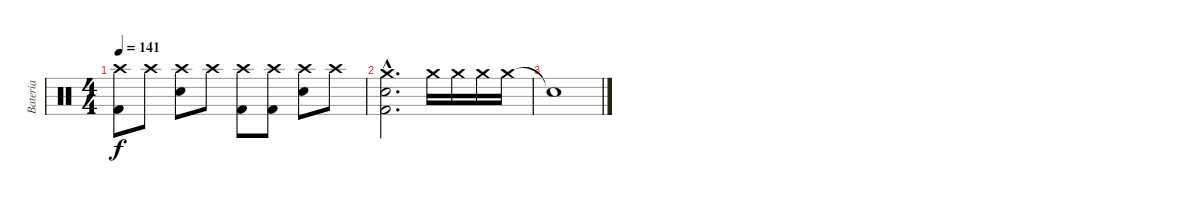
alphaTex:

\track ("Bateria" "Bateria") {instrument percussion}
\staff {score}
\articulation defaults
\ts (4 4)
\tempo 141
\clef neutral
\ks c
("Crash high (hit)" "Kick (hit) 2").8{dy f} "Crash high (hit)".8 ("Crash high (hit)" "Electric Snare (hit)").8 "Crash high (hit)".8 ("Crash high (hit)" "Kick (hit) 2").8 ("Crash high (hit)" "Kick (hit) 2").8 ("Crash high (hit)" "Electric Snare (hit)").8 "Crash high (hit)".8 |
("Crash medium (hit)"{hac} "Electric Snare (hit)"{hac} "Kick (hit) 2"{hac}).2{d} "Crash medium (hit)".16 "Crash medium (hit)".16 "Crash medium (hit)".16 "Crash medium (hit)".16 |
"Snare (hit)"{t}.1
